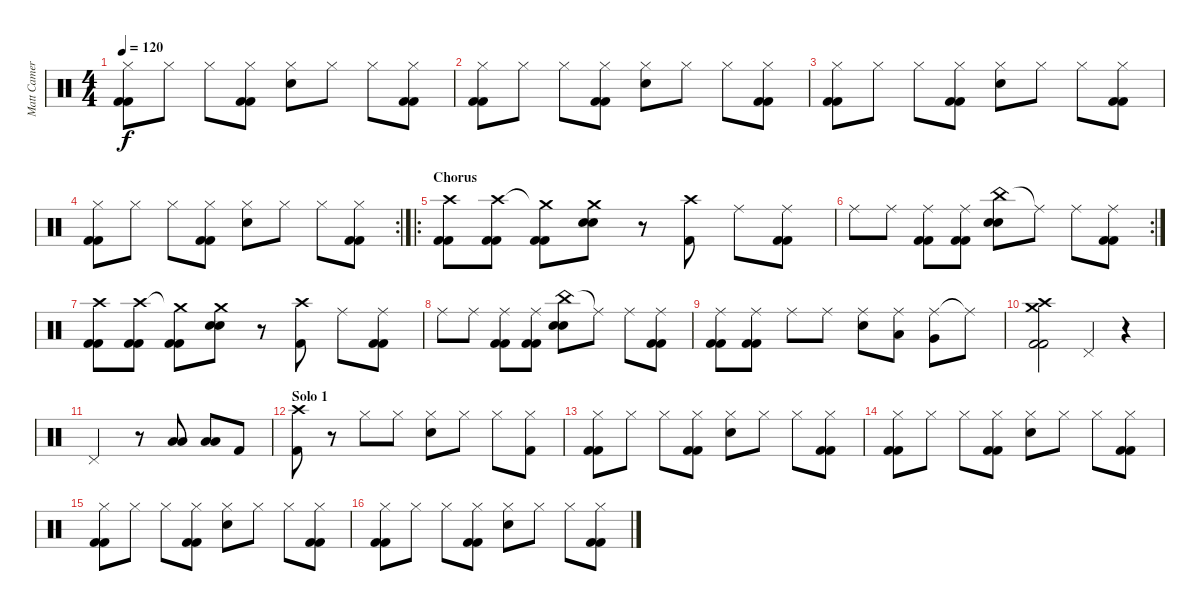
\track ("Matt Cameron" "Matt Camer") {instrument percussion}
\staff {score}
\articulation defaults
\ts (4 4)
\tempo 120
\clef neutral
\ks c
("Hi-Hat (closed)" "Kick (hit) 2" "Kick (hit) 2").8{dy f} "Hi-Hat (closed)".8 "Hi-Hat (closed)".8 ("Hi-Hat (closed)" "Kick (hit) 2" "Kick (hit) 2").8 ("Hi-Hat (closed)" "Electric Snare (hit)").8 "Hi-Hat (closed)".8 "Hi-Hat (closed)".8 ("Hi-Hat (closed)" "Kick (hit) 2" "Kick (hit) 2").8 |
("Hi-Hat (closed)" "Kick (hit) 2" "Kick (hit) 2").8 "Hi-Hat (closed)".8 "Hi-Hat (closed)".8 ("Hi-Hat (closed)" "Kick (hit) 2" "Kick (hit) 2").8 ("Hi-Hat (closed)" "Electric Snare (hit)").8 "Hi-Hat (closed)".8 "Hi-Hat (closed)".8 ("Hi-Hat (closed)" "Kick (hit) 2" "Kick (hit) 2").8 |
("Hi-Hat (closed)" "Kick (hit) 2" "Kick (hit) 2").8 "Hi-Hat (closed)".8 "Hi-Hat (closed)".8 ("Hi-Hat (closed)" "Kick (hit) 2" "Kick (hit) 2").8 ("Hi-Hat (closed)" "Electric Snare (hit)").8 "Hi-Hat (closed)".8 "Hi-Hat (closed)".8 ("Hi-Hat (closed)" "Kick (hit) 2" "Kick (hit) 2").8 |
\rc 2
("Hi-Hat (closed)" "Kick (hit) 2" "Kick (hit) 2").8 "Hi-Hat (closed)".8 "Hi-Hat (closed)".8 ("Hi-Hat (closed)" "Kick (hit) 2" "Kick (hit) 2").8 ("Hi-Hat (closed)" "Electric Snare (hit)").8 "Hi-Hat (closed)".8 "Hi-Hat (closed)".8 ("Hi-Hat (closed)" "Kick (hit) 2" "Kick (hit) 2").8 |
\ro
\section ("" "Chorus")
("Crash high (hit)" "Kick (hit) 2" "Kick (hit) 2").8 ("Crash high (hit)" "Kick (hit) 2" "Kick (hit) 2").8 ("Crash medium (hit)"{t} "Kick (hit) 2" "Kick (hit) 2").8 ("Crash medium (hit)" "Electric Snare (hit)" "Electric Snare (hit)").8 r.8 ("Crash high (hit)" "Kick (hit) 2").8 "Ride (middle)".8 ("Ride (middle)" "Kick (hit) 2" "Kick (hit) 2").8 |
\rc 2 "Ride (middle)".8 "Ride (middle)".8
("Ride (middle)" "Kick (hit) 2" "Kick (hit) 2").8 ("Ride (middle)" "Kick (hit) 2" "Kick (hit) 2").8 ("China (hit)" "Electric Snare (hit)" "Electric Snare (hit)").8 "Ride (middle)"{t}.8 "Ride (middle)".8 ("Ride (middle)" "Kick (hit) 2" "Kick (hit) 2").8 |
("Crash high (hit)" "Kick (hit) 2" "Kick (hit) 2").8 ("Crash high (hit)" "Kick (hit) 2" "Kick (hit) 2").8 ("Crash medium (hit)"{t} "Kick (hit) 2" "Kick (hit) 2").8 ("Crash medium (hit)" "Electric Snare (hit)" "Electric Snare (hit)").8 r.8 ("Crash high (hit)" "Kick (hit) 2").8 "Ride (middle)".8 ("Ride (middle)" "Kick (hit) 2" "Kick (hit) 2").8 |
"Ride (middle)".8 "Ride (middle)".8 ("Ride (middle)" "Kick (hit) 2" "Kick (hit) 2").8 ("Ride (middle)" "Kick (hit) 2" "Kick (hit) 2").8 ("China (hit)" "Electric Snare (hit)" "Electric Snare (hit)").8 "Ride (middle)"{t}.8 "Ride (middle)".8 ("Ride (middle)" "Kick (hit) 2" "Kick (hit) 2").8 |
("Ride (middle)" "Kick (hit) 2" "Kick (hit) 2").8 ("Ride (middle)" "Kick (hit) 2" "Kick (hit) 2").8 "Ride (middle)".8 "Ride (middle)".8 ("Ride (middle)" "Electric Snare (hit)").8 ("Ride (middle)" "Low Tom (hit)").8 ("Ride (middle)" "Very Low Tom (hit)").8 "Ride (middle)"{t}.8 |
("Crash high (hit)" "Crash medium (hit)" "Kick (hit) 2" "Kick (hit) 2").2 "Pedal Hi-Hat (hit)".4 r.4 |
"Pedal Hi-Hat (hit)".2 r.8 ("Low Tom (hit)" "Low Tom (hit)").8 ("Low Tom (hit)" "Low Tom (hit)").8 "Kick (hit) 2".8 |
\section ("" "Solo 1")
("Crash high (hit)" "Kick (hit) 2").8{volume 13} r.8 "Hi-Hat (closed)".8 "Hi-Hat (closed)".8 ("Hi-Hat (closed)" "Electric Snare (hit)").8 "Hi-Hat (closed)".8 "Hi-Hat (closed)".8 ("Hi-Hat (closed)" "Kick (hit) 2").8 |
("Hi-Hat (closed)" "Kick (hit) 2" "Kick (hit) 2").8 "Hi-Hat (closed)".8 "Hi-Hat (closed)".8 ("Hi-Hat (closed)" "Kick (hit) 2" "Kick (hit) 2").8 ("Hi-Hat (closed)" "Electric Snare (hit)").8 "Hi-Hat (closed)".8 "Hi-Hat (closed)".8 ("Hi-Hat (closed)" "Kick (hit) 2" "Kick (hit) 2").8 |
("Hi-Hat (closed)" "Kick (hit) 2" "Kick (hit) 2").8 "Hi-Hat (closed)".8 "Hi-Hat (closed)".8 ("Hi-Hat (closed)" "Kick (hit) 2" "Kick (hit) 2").8 ("Hi-Hat (closed)" "Electric Snare (hit)").8 "Hi-Hat (closed)".8 "Hi-Hat (closed)".8 ("Hi-Hat (closed)" "Kick (hit) 2" "Kick (hit) 2").8 |
("Hi-Hat (closed)" "Kick (hit) 2" "Kick (hit) 2").8 "Hi-Hat (closed)".8 "Hi-Hat (closed)".8 ("Hi-Hat (closed)" "Kick (hit) 2" "Kick (hit) 2").8 ("Hi-Hat (closed)" "Electric Snare (hit)").8 "Hi-Hat (closed)".8 "Hi-Hat (closed)".8 ("Hi-Hat (closed)" "Kick (hit) 2" "Kick (hit) 2").8 |
("Hi-Hat (closed)" "Kick (hit) 2" "Kick (hit) 2").8 "Hi-Hat (closed)".8 "Hi-Hat (closed)".8 ("Hi-Hat (closed)" "Kick (hit) 2" "Kick (hit) 2").8 ("Hi-Hat (closed)" "Electric Snare (hit)").8 "Hi-Hat (closed)".8 "Hi-Hat (closed)".8 ("Hi-Hat (closed)" "Kick (hit) 2" "Kick (hit) 2").8
